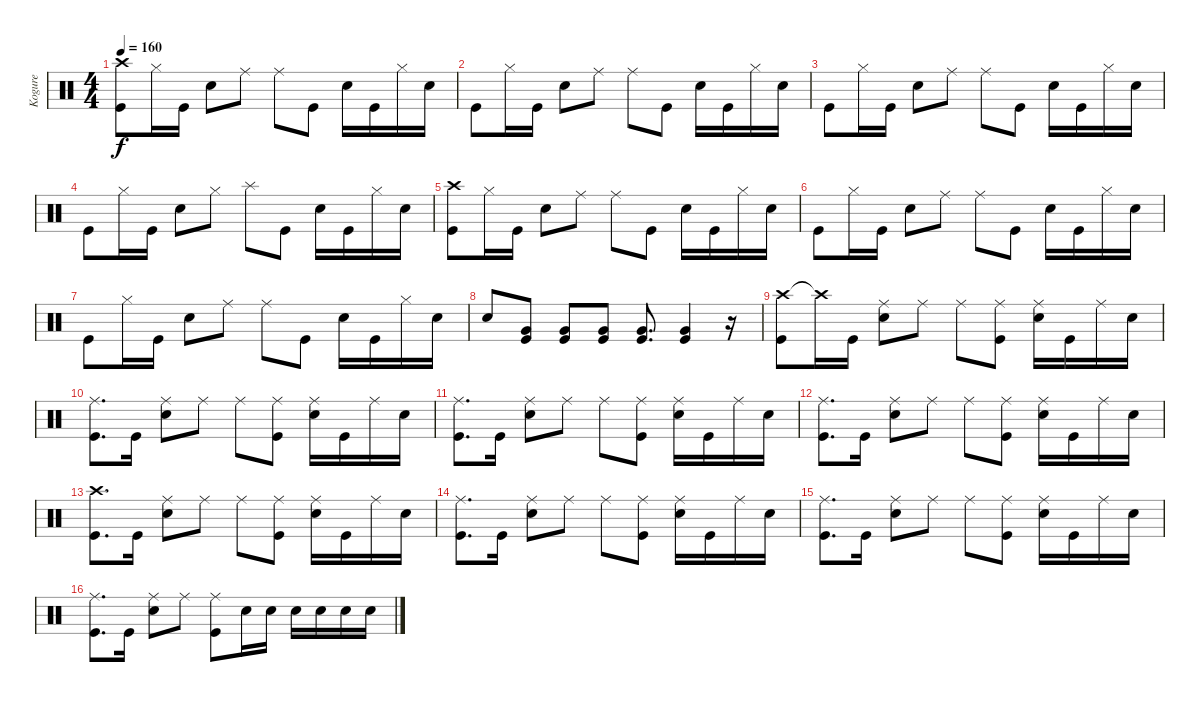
\track ("Kogure" "Kogure") {instrument percussion}
\staff {score}
\articulation defaults
\ts (4 4)
\tempo 160
\clef neutral
\ks c
("Crash high (hit)" "Kick (hit)").8{dy f} "Hi-Hat (closed)".16 "Kick (hit)".16 "Snare (hit) 2".8 "Ride (middle)".8 "Ride (middle)".8 "Kick (hit)".8 "Snare (hit) 2".16 "Kick (hit)".16 "Hi-Hat (closed)".16 "Snare (hit) 2".16 |
"Kick (hit)".8 "Hi-Hat (closed)".16 "Kick (hit)".16 "Snare (hit) 2".8 "Ride (middle)".8 "Ride (middle)".8 "Kick (hit)".8 "Snare (hit) 2".16 "Kick (hit)".16 "Hi-Hat (closed)".16 "Snare (hit) 2".16 |
"Kick (hit)".8 "Hi-Hat (closed)".16 "Kick (hit)".16 "Snare (hit) 2".8 "Ride (middle)".8 "Ride (middle)".8 "Kick (hit)".8 "Snare (hit) 2".16 "Kick (hit)".16 "Hi-Hat (closed)".16 "Snare (hit) 2".16 |
"Kick (hit)".8 "Hi-Hat (closed)".16 "Kick (hit)".16 "Snare (hit) 2".8 "Hi-Hat (closed)".8 "Splash (hit)".8 "Kick (hit)".8 "Snare (hit) 2".16 "Kick (hit)".16 "Hi-Hat (closed)".16 "Snare (hit) 2".16 |
("Crash high (hit)" "Kick (hit)").8 "Hi-Hat (closed)".16 "Kick (hit)".16 "Snare (hit) 2".8 "Ride (middle)".8 "Ride (middle)".8 "Kick (hit)".8 "Snare (hit) 2".16 "Kick (hit)".16 "Hi-Hat (closed)".16 "Snare (hit) 2".16 |
"Kick (hit)".8 "Hi-Hat (closed)".16 "Kick (hit)".16 "Snare (hit) 2".8 "Ride (middle)".8 "Ride (middle)".8 "Kick (hit)".8 "Snare (hit) 2".16 "Kick (hit)".16 "Hi-Hat (closed)".16 "Snare (hit) 2".16 |
"Kick (hit)".8 "Hi-Hat (closed)".16 "Kick (hit)".16 "Snare (hit) 2".8 "Ride (middle)".8 "Ride (middle)".8 "Kick (hit)".8 "Snare (hit) 2".16 "Kick (hit)".16 "Hi-Hat (closed)".16 "Snare (hit) 2".16 |
"Snare (hit) 2".8 ("Very Low Tom (hit)" "Kick (hit)").8 ("Very Low Tom (hit)" "Kick (hit)").8 ("Very Low Tom (hit)" "Kick (hit)").8 ("Very Low Tom (hit)" "Kick (hit)").8{d} ("Very Low Tom (hit)" "Kick (hit)").4 r.16 |
("Crash high (hit)" "Kick (hit)").8 "Crash high (hit)"{t}.16 "Kick (hit)".16 ("Ride (middle)" "Snare (hit) 2").8 "Ride (middle)".8 "Ride (middle)".8 ("Ride (middle)" "Kick (hit)").8 ("Ride (middle)" "Snare (hit) 2").16 "Kick (hit)".16 "Ride (middle)".16 "Snare (hit) 2".16 |
("Ride (middle)" "Kick (hit)").8{d} "Kick (hit)".16 ("Ride (middle)" "Snare (hit) 2").8 "Ride (middle)".8 "Ride (middle)".8 ("Ride (middle)" "Kick (hit)").8 ("Ride (middle)" "Snare (hit) 2").16 "Kick (hit)".16 "Ride (middle)".16 "Snare (hit) 2".16 |
("Ride (middle)" "Kick (hit)").8{d} "Kick (hit)".16 ("Ride (middle)" "Snare (hit) 2").8 "Ride (middle)".8 "Ride (middle)".8 ("Ride (middle)" "Kick (hit)").8 ("Ride (middle)" "Snare (hit) 2").16 "Kick (hit)".16 "Ride (middle)".16 "Snare (hit) 2".16 |
("Ride (middle)" "Kick (hit)").8{d} "Kick (hit)".16 ("Ride (middle)" "Snare (hit) 2").8 "Ride (middle)".8 "Ride (middle)".8 ("Ride (middle)" "Kick (hit)").8 ("Ride (middle)" "Snare (hit) 2").16 "Kick (hit)".16 "Ride (middle)".16 "Snare (hit) 2".16 |
("Crash high (hit)" "Kick (hit)").8{d} "Kick (hit)".16 ("Ride (middle)" "Snare (hit) 2").8 "Ride (middle)".8 "Ride (middle)".8 ("Ride (middle)" "Kick (hit)").8 ("Ride (middle)" "Snare (hit) 2").16 "Kick (hit)".16 "Ride (middle)".16 "Snare (hit) 2".16 |
("Ride (middle)" "Kick (hit)").8{d} "Kick (hit)".16 ("Ride (middle)" "Snare (hit) 2").8 "Ride (middle)".8 "Ride (middle)".8 ("Ride (middle)" "Kick (hit)").8 ("Ride (middle)" "Snare (hit) 2").16 "Kick (hit)".16 "Ride (middle)".16 "Snare (hit) 2".16 |
("Ride (middle)" "Kick (hit)").8{d} "Kick (hit)".16 ("Ride (middle)" "Snare (hit) 2").8 "Ride (middle)".8 "Ride (middle)".8 ("Ride (middle)" "Kick (hit)").8 ("Ride (middle)" "Snare (hit) 2").16 "Kick (hit)".16 "Ride (middle)".16 "Snare (hit) 2".16 |
("Ride (middle)" "Kick (hit)").8{d} "Kick (hit)".16 ("Ride (middle)" "Snare (hit) 2").8 "Ride (middle)".8 ("Ride (middle)" "Kick (hit)").8 "Snare (hit) 2".16 "Snare (hit) 2".16 "Snare (hit) 2".16 "Snare (hit) 2".16 "Snare (hit) 2".16 "Snare (hit) 2".16
